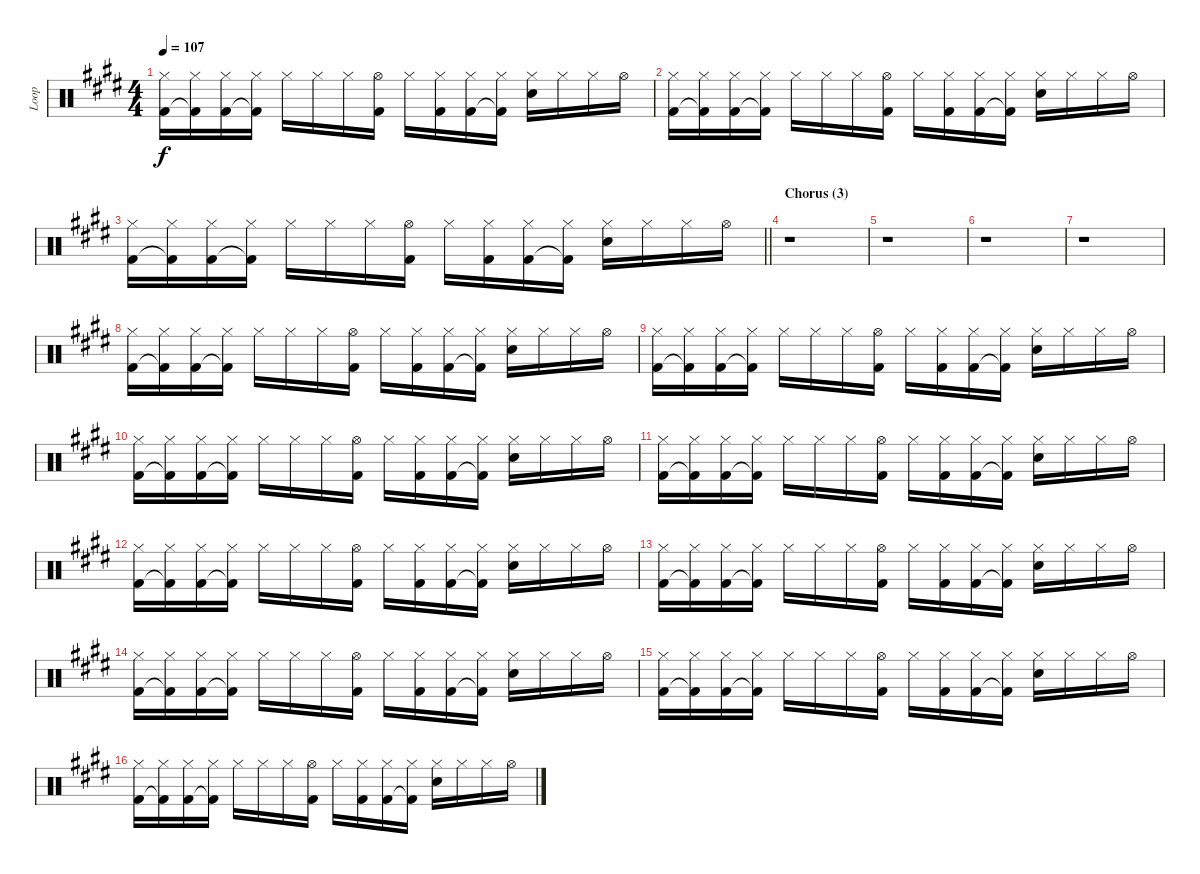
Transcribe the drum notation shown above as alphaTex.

\track ("Loop" "Loop") {instrument percussion}
\staff {score}
\articulation defaults
\ts (4 4)
\tempo 107
\clef neutral
\ks e
("Hi-Hat (closed)" "Kick (hit) 2").16{dy f} ("Hi-Hat (closed)" "Kick (hit) 2"{t}).16 ("Hi-Hat (closed)" "Kick (hit) 2").16 ("Hi-Hat (closed)" "Kick (hit) 2"{t}).16 "Hi-Hat (closed)".16 "Hi-Hat (closed)".16 "Hi-Hat (closed)".16 ("Hi-Hat (open)" "Kick (hit) 2").16 "Hi-Hat (closed)".16 ("Hi-Hat (closed)" "Kick (hit) 2").16 ("Hi-Hat (closed)" "Kick (hit) 2").16 ("Hi-Hat (closed)" "Kick (hit) 2"{t}).16 ("Hi-Hat (closed)" "Electric Snare (hit)").16 "Hi-Hat (closed)".16 "Hi-Hat (closed)".16 "Hi-Hat (open)".16 |
("Hi-Hat (closed)" "Kick (hit) 2").16 ("Hi-Hat (closed)" "Kick (hit) 2"{t}).16 ("Hi-Hat (closed)" "Kick (hit) 2").16 ("Hi-Hat (closed)" "Kick (hit) 2"{t}).16 "Hi-Hat (closed)".16 "Hi-Hat (closed)".16 "Hi-Hat (closed)".16 ("Hi-Hat (open)" "Kick (hit) 2").16 "Hi-Hat (closed)".16 ("Hi-Hat (closed)" "Kick (hit) 2").16 ("Hi-Hat (closed)" "Kick (hit) 2").16 ("Hi-Hat (closed)" "Kick (hit) 2"{t}).16 ("Hi-Hat (closed)" "Electric Snare (hit)").16 "Hi-Hat (closed)".16 "Hi-Hat (closed)".16 "Hi-Hat (open)".16 |
\barLineRight lightlight
("Hi-Hat (closed)" "Kick (hit) 2").16 ("Hi-Hat (closed)" "Kick (hit) 2"{t}).16 ("Hi-Hat (closed)" "Kick (hit) 2").16 ("Hi-Hat (closed)" "Kick (hit) 2"{t}).16 "Hi-Hat (closed)".16 "Hi-Hat (closed)".16 "Hi-Hat (closed)".16 ("Hi-Hat (open)" "Kick (hit) 2").16 "Hi-Hat (closed)".16 ("Hi-Hat (closed)" "Kick (hit) 2").16 ("Hi-Hat (closed)" "Kick (hit) 2").16 ("Hi-Hat (closed)" "Kick (hit) 2"{t}).16 ("Hi-Hat (closed)" "Electric Snare (hit)").16 "Hi-Hat (closed)".16 "Hi-Hat (closed)".16 "Hi-Hat (open)".16 |
\section ("" "Chorus (3)")
r.1 |
r.1 |
r.1 |
r.1 |
("Hi-Hat (closed)" "Kick (hit) 2").16 ("Hi-Hat (closed)" "Kick (hit) 2"{t}).16 ("Hi-Hat (closed)" "Kick (hit) 2").16 ("Hi-Hat (closed)" "Kick (hit) 2"{t}).16 "Hi-Hat (closed)".16 "Hi-Hat (closed)".16 "Hi-Hat (closed)".16 ("Hi-Hat (open)" "Kick (hit) 2").16 "Hi-Hat (closed)".16 ("Hi-Hat (closed)" "Kick (hit) 2").16 ("Hi-Hat (closed)" "Kick (hit) 2").16 ("Hi-Hat (closed)" "Kick (hit) 2"{t}).16 ("Hi-Hat (closed)" "Electric Snare (hit)").16 "Hi-Hat (closed)".16 "Hi-Hat (closed)".16 "Hi-Hat (open)".16 |
("Hi-Hat (closed)" "Kick (hit) 2").16 ("Hi-Hat (closed)" "Kick (hit) 2"{t}).16 ("Hi-Hat (closed)" "Kick (hit) 2").16 ("Hi-Hat (closed)" "Kick (hit) 2"{t}).16 "Hi-Hat (closed)".16 "Hi-Hat (closed)".16 "Hi-Hat (closed)".16 ("Hi-Hat (open)" "Kick (hit) 2").16 "Hi-Hat (closed)".16 ("Hi-Hat (closed)" "Kick (hit) 2").16 ("Hi-Hat (closed)" "Kick (hit) 2").16 ("Hi-Hat (closed)" "Kick (hit) 2"{t}).16 ("Hi-Hat (closed)" "Electric Snare (hit)").16 "Hi-Hat (closed)".16 "Hi-Hat (closed)".16 "Hi-Hat (open)".16 |
("Hi-Hat (closed)" "Kick (hit) 2").16 ("Hi-Hat (closed)" "Kick (hit) 2"{t}).16 ("Hi-Hat (closed)" "Kick (hit) 2").16 ("Hi-Hat (closed)" "Kick (hit) 2"{t}).16 "Hi-Hat (closed)".16 "Hi-Hat (closed)".16 "Hi-Hat (closed)".16 ("Hi-Hat (open)" "Kick (hit) 2").16 "Hi-Hat (closed)".16 ("Hi-Hat (closed)" "Kick (hit) 2").16 ("Hi-Hat (closed)" "Kick (hit) 2").16 ("Hi-Hat (closed)" "Kick (hit) 2"{t}).16 ("Hi-Hat (closed)" "Electric Snare (hit)").16 "Hi-Hat (closed)".16 "Hi-Hat (closed)".16 "Hi-Hat (open)".16 |
("Hi-Hat (closed)" "Kick (hit) 2").16 ("Hi-Hat (closed)" "Kick (hit) 2"{t}).16 ("Hi-Hat (closed)" "Kick (hit) 2").16 ("Hi-Hat (closed)" "Kick (hit) 2"{t}).16 "Hi-Hat (closed)".16 "Hi-Hat (closed)".16 "Hi-Hat (closed)".16 ("Hi-Hat (open)" "Kick (hit) 2").16 "Hi-Hat (closed)".16 ("Hi-Hat (closed)" "Kick (hit) 2").16 ("Hi-Hat (closed)" "Kick (hit) 2").16 ("Hi-Hat (closed)" "Kick (hit) 2"{t}).16 ("Hi-Hat (closed)" "Electric Snare (hit)").16 "Hi-Hat (closed)".16 "Hi-Hat (closed)".16 "Hi-Hat (open)".16 |
("Hi-Hat (closed)" "Kick (hit) 2").16 ("Hi-Hat (closed)" "Kick (hit) 2"{t}).16 ("Hi-Hat (closed)" "Kick (hit) 2").16 ("Hi-Hat (closed)" "Kick (hit) 2"{t}).16 "Hi-Hat (closed)".16 "Hi-Hat (closed)".16 "Hi-Hat (closed)".16 ("Hi-Hat (open)" "Kick (hit) 2").16 "Hi-Hat (closed)".16 ("Hi-Hat (closed)" "Kick (hit) 2").16 ("Hi-Hat (closed)" "Kick (hit) 2").16 ("Hi-Hat (closed)" "Kick (hit) 2"{t}).16 ("Hi-Hat (closed)" "Electric Snare (hit)").16 "Hi-Hat (closed)".16 "Hi-Hat (closed)".16 "Hi-Hat (open)".16 |
("Hi-Hat (closed)" "Kick (hit) 2").16 ("Hi-Hat (closed)" "Kick (hit) 2"{t}).16 ("Hi-Hat (closed)" "Kick (hit) 2").16 ("Hi-Hat (closed)" "Kick (hit) 2"{t}).16 "Hi-Hat (closed)".16 "Hi-Hat (closed)".16 "Hi-Hat (closed)".16 ("Hi-Hat (open)" "Kick (hit) 2").16 "Hi-Hat (closed)".16 ("Hi-Hat (closed)" "Kick (hit) 2").16 ("Hi-Hat (closed)" "Kick (hit) 2").16 ("Hi-Hat (closed)" "Kick (hit) 2"{t}).16 ("Hi-Hat (closed)" "Electric Snare (hit)").16 "Hi-Hat (closed)".16 "Hi-Hat (closed)".16 "Hi-Hat (open)".16 |
("Hi-Hat (closed)" "Kick (hit) 2").16 ("Hi-Hat (closed)" "Kick (hit) 2"{t}).16 ("Hi-Hat (closed)" "Kick (hit) 2").16 ("Hi-Hat (closed)" "Kick (hit) 2"{t}).16 "Hi-Hat (closed)".16 "Hi-Hat (closed)".16 "Hi-Hat (closed)".16 ("Hi-Hat (open)" "Kick (hit) 2").16 "Hi-Hat (closed)".16 ("Hi-Hat (closed)" "Kick (hit) 2").16 ("Hi-Hat (closed)" "Kick (hit) 2").16 ("Hi-Hat (closed)" "Kick (hit) 2"{t}).16 ("Hi-Hat (closed)" "Electric Snare (hit)").16 "Hi-Hat (closed)".16 "Hi-Hat (closed)".16 "Hi-Hat (open)".16 |
("Hi-Hat (closed)" "Kick (hit) 2").16 ("Hi-Hat (closed)" "Kick (hit) 2"{t}).16 ("Hi-Hat (closed)" "Kick (hit) 2").16 ("Hi-Hat (closed)" "Kick (hit) 2"{t}).16 "Hi-Hat (closed)".16 "Hi-Hat (closed)".16 "Hi-Hat (closed)".16 ("Hi-Hat (open)" "Kick (hit) 2").16 "Hi-Hat (closed)".16 ("Hi-Hat (closed)" "Kick (hit) 2").16 ("Hi-Hat (closed)" "Kick (hit) 2").16 ("Hi-Hat (closed)" "Kick (hit) 2"{t}).16 ("Hi-Hat (closed)" "Electric Snare (hit)").16 "Hi-Hat (closed)".16 "Hi-Hat (closed)".16 "Hi-Hat (open)".16 |
("Hi-Hat (closed)" "Kick (hit) 2").16 ("Hi-Hat (closed)" "Kick (hit) 2"{t}).16 ("Hi-Hat (closed)" "Kick (hit) 2").16 ("Hi-Hat (closed)" "Kick (hit) 2"{t}).16 "Hi-Hat (closed)".16 "Hi-Hat (closed)".16 "Hi-Hat (closed)".16 ("Hi-Hat (open)" "Kick (hit) 2").16 "Hi-Hat (closed)".16 ("Hi-Hat (closed)" "Kick (hit) 2").16 ("Hi-Hat (closed)" "Kick (hit) 2").16 ("Hi-Hat (closed)" "Kick (hit) 2"{t}).16 ("Hi-Hat (closed)" "Electric Snare (hit)").16 "Hi-Hat (closed)".16 "Hi-Hat (closed)".16 "Hi-Hat (open)".16
